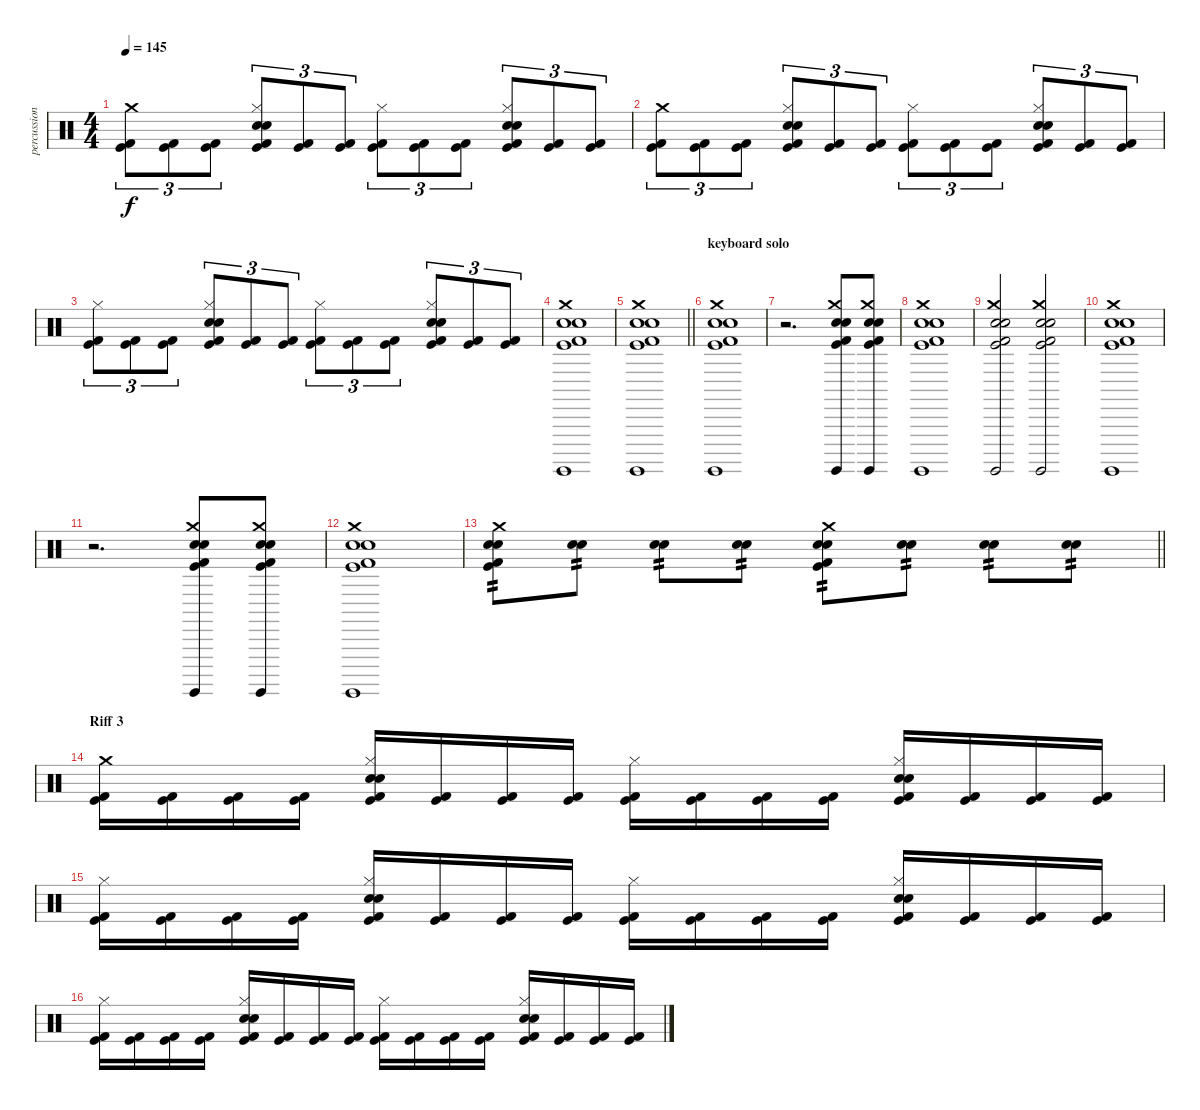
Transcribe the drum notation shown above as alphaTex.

\track ("percussion" "percussion") {instrument percussion}
\staff {score}
\articulation defaults
\ts (4 4)
\tempo 145
\clef neutral
\ks c
("Crash medium (hit)" "Kick (hit)" "Kick (hit) 2").8{tu (3 2) dy f} ("Kick (hit)" "Kick (hit) 2").8{tu (3 2)} ("Kick (hit)" "Kick (hit) 2").8{tu (3 2)} ("Hi-Hat (closed)" "Electric Snare (hit)" "Snare (hit) 2" "Kick (hit)" "Kick (hit) 2").8{tu (3 2)} ("Kick (hit)" "Kick (hit) 2").8{tu (3 2)} ("Kick (hit)" "Kick (hit) 2").8{tu (3 2)} ("Hi-Hat (closed)" "Kick (hit)" "Kick (hit) 2").8{tu (3 2)} ("Kick (hit)" "Kick (hit) 2").8{tu (3 2)} ("Kick (hit)" "Kick (hit) 2").8{tu (3 2)} ("Hi-Hat (closed)" "Electric Snare (hit)" "Snare (hit) 2" "Kick (hit)" "Kick (hit) 2").8{tu (3 2)} ("Kick (hit)" "Kick (hit) 2").8{tu (3 2)} ("Kick (hit)" "Kick (hit) 2").8{tu (3 2)} |
("Crash medium (hit)" "Kick (hit)" "Kick (hit) 2").8{tu (3 2)} ("Kick (hit)" "Kick (hit) 2").8{tu (3 2)} ("Kick (hit)" "Kick (hit) 2").8{tu (3 2)} ("Hi-Hat (closed)" "Electric Snare (hit)" "Snare (hit) 2" "Kick (hit)" "Kick (hit) 2").8{tu (3 2)} ("Kick (hit)" "Kick (hit) 2").8{tu (3 2)} ("Kick (hit)" "Kick (hit) 2").8{tu (3 2)} ("Hi-Hat (closed)" "Kick (hit)" "Kick (hit) 2").8{tu (3 2)} ("Kick (hit)" "Kick (hit) 2").8{tu (3 2)} ("Kick (hit)" "Kick (hit) 2").8{tu (3 2)} ("Hi-Hat (closed)" "Electric Snare (hit)" "Snare (hit) 2" "Kick (hit)" "Kick (hit) 2").8{tu (3 2)} ("Kick (hit)" "Kick (hit) 2").8{tu (3 2)} ("Kick (hit)" "Kick (hit) 2").8{tu (3 2)} |
("Hi-Hat (closed)" "Kick (hit)" "Kick (hit) 2").8{tu (3 2)} ("Kick (hit)" "Kick (hit) 2").8{tu (3 2)} ("Kick (hit)" "Kick (hit) 2").8{tu (3 2)} ("Hi-Hat (closed)" "Electric Snare (hit)" "Snare (hit) 2" "Kick (hit)" "Kick (hit) 2").8{tu (3 2)} ("Kick (hit)" "Kick (hit) 2").8{tu (3 2)} ("Kick (hit)" "Kick (hit) 2").8{tu (3 2)} ("Hi-Hat (closed)" "Kick (hit)" "Kick (hit) 2").8{tu (3 2)} ("Kick (hit)" "Kick (hit) 2").8{tu (3 2)} ("Kick (hit)" "Kick (hit) 2").8{tu (3 2)} ("Hi-Hat (closed)" "Electric Snare (hit)" "Snare (hit) 2" "Kick (hit)" "Kick (hit) 2").8{tu (3 2)} ("Kick (hit)" "Kick (hit) 2").8{tu (3 2)} ("Kick (hit)" "Kick (hit) 2").8{tu (3 2)} |
("Crash medium (hit)" "Electric Snare (hit)" "Snare (hit) 2" "Surdo (hit)" "Kick (hit) 2" "Kick (hit)").1 |
\barLineRight lightlight
("Crash medium (hit)" "Electric Snare (hit)" "Snare (hit) 2" "Surdo (hit)" "Kick (hit) 2" "Kick (hit)").1 |
\section ("" "keyboard solo")
("Crash medium (hit)" "Electric Snare (hit)" "Snare (hit) 2" "Surdo (hit)" "Kick (hit) 2" "Kick (hit)").1 |
r.2{d} ("Crash medium (hit)" "Electric Snare (hit)" "Snare (hit) 2" "Surdo (hit)" "Kick (hit) 2" "Kick (hit)").8 ("Crash medium (hit)" "Electric Snare (hit)" "Snare (hit) 2" "Surdo (hit)" "Kick (hit) 2" "Kick (hit)").8 |
("Crash medium (hit)" "Electric Snare (hit)" "Snare (hit) 2" "Surdo (hit)" "Kick (hit) 2" "Kick (hit)").1 |
("Crash medium (hit)" "Electric Snare (hit)" "Snare (hit) 2" "Surdo (hit)" "Kick (hit) 2" "Kick (hit)").2 ("Crash medium (hit)" "Electric Snare (hit)" "Snare (hit) 2" "Surdo (hit)" "Kick (hit) 2" "Kick (hit)").2 |
("Crash medium (hit)" "Electric Snare (hit)" "Snare (hit) 2" "Surdo (hit)" "Kick (hit) 2" "Kick (hit)").1 |
r.2{d} ("Crash medium (hit)" "Electric Snare (hit)" "Snare (hit) 2" "Surdo (hit)" "Kick (hit) 2" "Kick (hit)").8 ("Crash medium (hit)" "Electric Snare (hit)" "Snare (hit) 2" "Surdo (hit)" "Kick (hit) 2" "Kick (hit)").8 |
("Crash medium (hit)" "Electric Snare (hit)" "Snare (hit) 2" "Surdo (hit)" "Kick (hit) 2" "Kick (hit)").1 |
\barLineRight lightlight
("Crash medium (hit)" "Electric Snare (hit)" "Snare (hit) 2" "Kick (hit) 2" "Kick (hit)").8{tp 2} ("Electric Snare (hit)" "Snare (hit) 2").8{tp 2} ("Electric Snare (hit)" "Snare (hit) 2").8{tp 2} ("Electric Snare (hit)" "Snare (hit) 2").8{tp 2} ("Crash medium (hit)" "Electric Snare (hit)" "Snare (hit) 2" "Kick (hit) 2" "Kick (hit)").8{tp 2} ("Electric Snare (hit)" "Snare (hit) 2").8{tp 2} ("Electric Snare (hit)" "Snare (hit) 2").8{tp 2} ("Electric Snare (hit)" "Snare (hit) 2").8{tp 2} |
\section ("" "Riff 3")
("Crash medium (hit)" "Kick (hit) 2" "Kick (hit)").16 ("Kick (hit) 2" "Kick (hit)").16 ("Kick (hit) 2" "Kick (hit)").16 ("Kick (hit) 2" "Kick (hit)").16 ("Hi-Hat (closed)" "Electric Snare (hit)" "Snare (hit) 2" "Kick (hit) 2" "Kick (hit)").16 ("Kick (hit) 2" "Kick (hit)").16 ("Kick (hit) 2" "Kick (hit)").16 ("Kick (hit) 2" "Kick (hit)").16 ("Hi-Hat (closed)" "Kick (hit) 2" "Kick (hit)").16 ("Kick (hit) 2" "Kick (hit)").16 ("Kick (hit) 2" "Kick (hit)").16 ("Kick (hit) 2" "Kick (hit)").16 ("Hi-Hat (closed)" "Electric Snare (hit)" "Snare (hit) 2" "Kick (hit) 2" "Kick (hit)").16 ("Kick (hit) 2" "Kick (hit)").16 ("Kick (hit) 2" "Kick (hit)").16 ("Kick (hit) 2" "Kick (hit)").16 |
("Hi-Hat (closed)" "Kick (hit) 2" "Kick (hit)").16 ("Kick (hit) 2" "Kick (hit)").16 ("Kick (hit) 2" "Kick (hit)").16 ("Kick (hit) 2" "Kick (hit)").16 ("Hi-Hat (closed)" "Electric Snare (hit)" "Snare (hit) 2" "Kick (hit) 2" "Kick (hit)").16 ("Kick (hit) 2" "Kick (hit)").16 ("Kick (hit) 2" "Kick (hit)").16 ("Kick (hit) 2" "Kick (hit)").16 ("Hi-Hat (closed)" "Kick (hit) 2" "Kick (hit)").16 ("Kick (hit) 2" "Kick (hit)").16 ("Kick (hit) 2" "Kick (hit)").16 ("Kick (hit) 2" "Kick (hit)").16 ("Hi-Hat (closed)" "Electric Snare (hit)" "Snare (hit) 2" "Kick (hit) 2" "Kick (hit)").16 ("Kick (hit) 2" "Kick (hit)").16 ("Kick (hit) 2" "Kick (hit)").16 ("Kick (hit) 2" "Kick (hit)").16 |
("Hi-Hat (closed)" "Kick (hit) 2" "Kick (hit)").16 ("Kick (hit) 2" "Kick (hit)").16 ("Kick (hit) 2" "Kick (hit)").16 ("Kick (hit) 2" "Kick (hit)").16 ("Hi-Hat (closed)" "Electric Snare (hit)" "Snare (hit) 2" "Kick (hit) 2" "Kick (hit)").16 ("Kick (hit) 2" "Kick (hit)").16 ("Kick (hit) 2" "Kick (hit)").16 ("Kick (hit) 2" "Kick (hit)").16 ("Hi-Hat (closed)" "Kick (hit) 2" "Kick (hit)").16 ("Kick (hit) 2" "Kick (hit)").16 ("Kick (hit) 2" "Kick (hit)").16 ("Kick (hit) 2" "Kick (hit)").16 ("Hi-Hat (closed)" "Electric Snare (hit)" "Snare (hit) 2" "Kick (hit) 2" "Kick (hit)").16 ("Kick (hit) 2" "Kick (hit)").16 ("Kick (hit) 2" "Kick (hit)").16 ("Kick (hit) 2" "Kick (hit)").16
